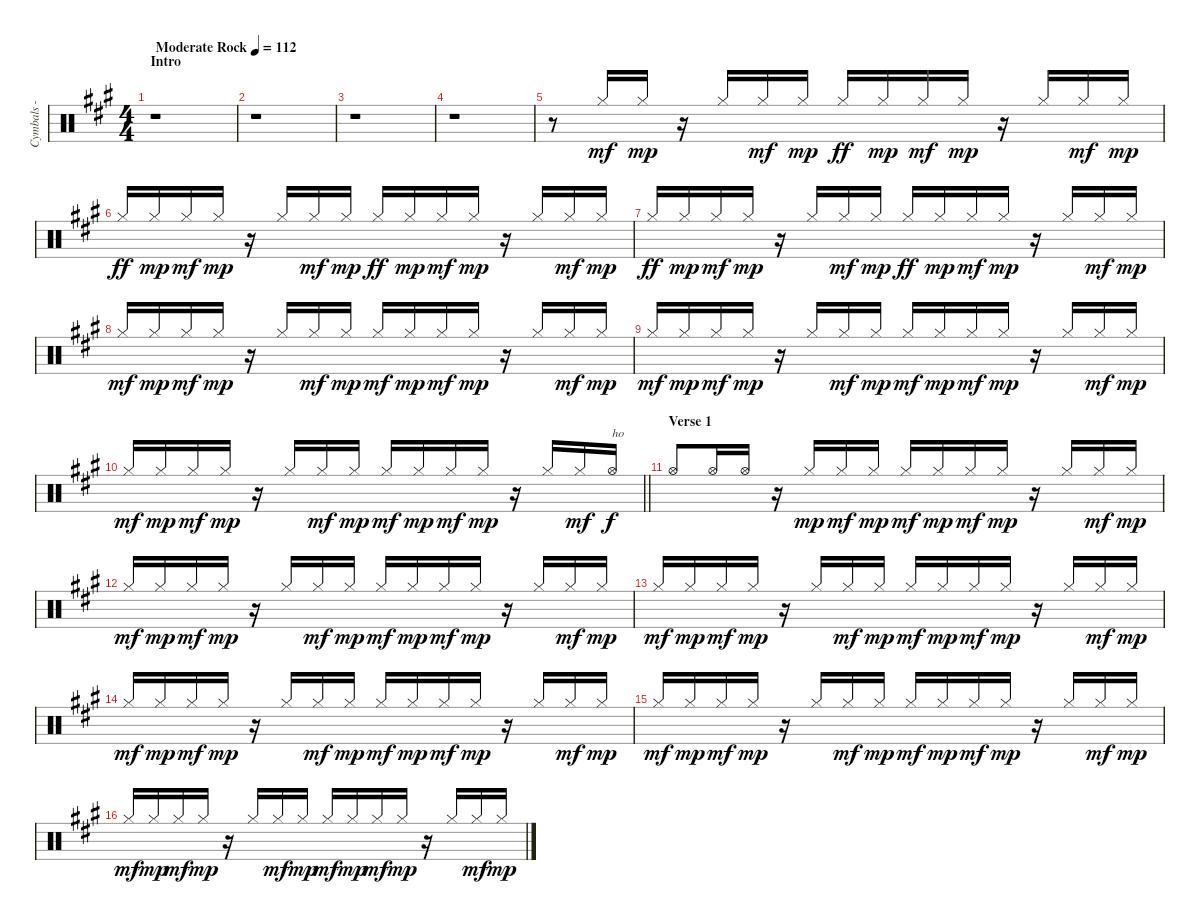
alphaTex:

\track ("Cymbals - hi-hat" "Cymbals - ") {instrument percussion}
\staff {score}
\articulation defaults
\ts (4 4)
\section ("" "Intro")
\tempo (112 "Moderate Rock")
\clef neutral
\ks f#minor
r.1{dy mf volume 6 balance 11} |
r.1 |
r.1 |
r.1 |
r.8 "Hi-Hat (closed)".16{beam Up} "Hi-Hat (closed)".16{dy mp beam Up} r.16 "Hi-Hat (closed)".16{beam Up} "Hi-Hat (closed)".16{dy mf beam Up} "Hi-Hat (closed)".16{dy mp beam Up} "Hi-Hat (closed)".16{dy ff beam Up} "Hi-Hat (closed)".16{dy mp beam Up} "Hi-Hat (closed)".16{dy mf beam Up} "Hi-Hat (closed)".16{dy mp beam Up} r.16 "Hi-Hat (closed)".16{beam Up} "Hi-Hat (closed)".16{dy mf beam Up} "Hi-Hat (closed)".16{dy mp beam Up} |
"Hi-Hat (closed)".16{dy ff beam Up} "Hi-Hat (closed)".16{dy mp beam Up} "Hi-Hat (closed)".16{dy mf beam Up} "Hi-Hat (closed)".16{dy mp beam Up} r.16 "Hi-Hat (closed)".16{beam Up} "Hi-Hat (closed)".16{dy mf beam Up} "Hi-Hat (closed)".16{dy mp beam Up} "Hi-Hat (closed)".16{dy ff beam Up} "Hi-Hat (closed)".16{dy mp beam Up} "Hi-Hat (closed)".16{dy mf beam Up} "Hi-Hat (closed)".16{dy mp beam Up} r.16 "Hi-Hat (closed)".16{beam Up} "Hi-Hat (closed)".16{dy mf beam Up} "Hi-Hat (closed)".16{dy mp beam Up} |
"Hi-Hat (closed)".16{dy ff beam Up} "Hi-Hat (closed)".16{dy mp beam Up} "Hi-Hat (closed)".16{dy mf beam Up} "Hi-Hat (closed)".16{dy mp beam Up} r.16 "Hi-Hat (closed)".16{beam Up} "Hi-Hat (closed)".16{dy mf beam Up} "Hi-Hat (closed)".16{dy mp beam Up} "Hi-Hat (closed)".16{dy ff beam Up} "Hi-Hat (closed)".16{dy mp beam Up} "Hi-Hat (closed)".16{dy mf beam Up} "Hi-Hat (closed)".16{dy mp beam Up} r.16 "Hi-Hat (closed)".16{beam Up} "Hi-Hat (closed)".16{dy mf beam Up} "Hi-Hat (closed)".16{dy mp beam Up} |
"Hi-Hat (closed)".16{dy mf beam Up} "Hi-Hat (closed)".16{dy mp beam Up} "Hi-Hat (closed)".16{dy mf beam Up} "Hi-Hat (closed)".16{dy mp beam Up} r.16 "Hi-Hat (closed)".16{beam Up} "Hi-Hat (closed)".16{dy mf beam Up} "Hi-Hat (closed)".16{dy mp beam Up} "Hi-Hat (closed)".16{dy mf beam Up} "Hi-Hat (closed)".16{dy mp beam Up} "Hi-Hat (closed)".16{dy mf beam Up} "Hi-Hat (closed)".16{dy mp beam Up} r.16 "Hi-Hat (closed)".16{beam Up} "Hi-Hat (closed)".16{dy mf beam Up} "Hi-Hat (closed)".16{dy mp beam Up} |
"Hi-Hat (closed)".16{dy mf beam Up} "Hi-Hat (closed)".16{dy mp beam Up} "Hi-Hat (closed)".16{dy mf beam Up} "Hi-Hat (closed)".16{dy mp beam Up} r.16 "Hi-Hat (closed)".16{beam Up} "Hi-Hat (closed)".16{dy mf beam Up} "Hi-Hat (closed)".16{dy mp beam Up} "Hi-Hat (closed)".16{dy mf beam Up} "Hi-Hat (closed)".16{dy mp beam Up} "Hi-Hat (closed)".16{dy mf beam Up} "Hi-Hat (closed)".16{dy mp beam Up} r.16 "Hi-Hat (closed)".16{beam Up} "Hi-Hat (closed)".16{dy mf beam Up} "Hi-Hat (closed)".16{dy mp beam Up} |
\barLineRight lightlight "Hi-Hat (closed)".16{dy mf beam Up} "Hi-Hat (closed)".16{dy mp beam Up} "Hi-Hat (closed)".16{dy mf beam Up} "Hi-Hat (closed)".16{dy mp beam Up}
r.16 "Hi-Hat (closed)".16{beam Up} "Hi-Hat (closed)".16{dy mf beam Up} "Hi-Hat (closed)".16{dy mp beam Up} "Hi-Hat (closed)".16{dy mf beam Up} "Hi-Hat (closed)".16{dy mp beam Up} "Hi-Hat (closed)".16{dy mf beam Up} "Hi-Hat (closed)".16{dy mp beam Up} r.16 "Hi-Hat (closed)".16{beam Up} "Hi-Hat (closed)".16{dy mf beam Up} "Hi-Hat (open)".16{txt "ho" dy f beam Up} |
\section ("" "Verse 1")
"Hi-Hat (open)".8{beam Up} "Hi-Hat (open)".16{beam Up} "Hi-Hat (open)".16{beam Up} r.16 "Hi-Hat (closed)".16{dy mp beam Up} "Hi-Hat (closed)".16{dy mf beam Up} "Hi-Hat (closed)".16{dy mp beam Up} "Hi-Hat (closed)".16{dy mf beam Up} "Hi-Hat (closed)".16{dy mp beam Up} "Hi-Hat (closed)".16{dy mf beam Up} "Hi-Hat (closed)".16{dy mp beam Up} r.16 "Hi-Hat (closed)".16{beam Up} "Hi-Hat (closed)".16{dy mf beam Up} "Hi-Hat (closed)".16{dy mp beam Up} |
"Hi-Hat (closed)".16{dy mf beam Up} "Hi-Hat (closed)".16{dy mp beam Up} "Hi-Hat (closed)".16{dy mf beam Up} "Hi-Hat (closed)".16{dy mp beam Up} r.16 "Hi-Hat (closed)".16{beam Up} "Hi-Hat (closed)".16{dy mf beam Up} "Hi-Hat (closed)".16{dy mp beam Up} "Hi-Hat (closed)".16{dy mf beam Up} "Hi-Hat (closed)".16{dy mp beam Up} "Hi-Hat (closed)".16{dy mf beam Up} "Hi-Hat (closed)".16{dy mp beam Up} r.16 "Hi-Hat (closed)".16{beam Up} "Hi-Hat (closed)".16{dy mf beam Up} "Hi-Hat (closed)".16{dy mp beam Up} |
"Hi-Hat (closed)".16{dy mf beam Up} "Hi-Hat (closed)".16{dy mp beam Up} "Hi-Hat (closed)".16{dy mf beam Up} "Hi-Hat (closed)".16{dy mp beam Up} r.16 "Hi-Hat (closed)".16{beam Up} "Hi-Hat (closed)".16{dy mf beam Up} "Hi-Hat (closed)".16{dy mp beam Up} "Hi-Hat (closed)".16{dy mf beam Up} "Hi-Hat (closed)".16{dy mp beam Up} "Hi-Hat (closed)".16{dy mf beam Up} "Hi-Hat (closed)".16{dy mp beam Up} r.16 "Hi-Hat (closed)".16{beam Up} "Hi-Hat (closed)".16{dy mf beam Up} "Hi-Hat (closed)".16{dy mp beam Up} |
"Hi-Hat (closed)".16{dy mf beam Up} "Hi-Hat (closed)".16{dy mp beam Up} "Hi-Hat (closed)".16{dy mf beam Up} "Hi-Hat (closed)".16{dy mp beam Up} r.16 "Hi-Hat (closed)".16{beam Up} "Hi-Hat (closed)".16{dy mf beam Up} "Hi-Hat (closed)".16{dy mp beam Up} "Hi-Hat (closed)".16{dy mf beam Up} "Hi-Hat (closed)".16{dy mp beam Up} "Hi-Hat (closed)".16{dy mf beam Up} "Hi-Hat (closed)".16{dy mp beam Up} r.16 "Hi-Hat (closed)".16{beam Up} "Hi-Hat (closed)".16{dy mf beam Up} "Hi-Hat (closed)".16{dy mp beam Up} |
"Hi-Hat (closed)".16{dy mf beam Up} "Hi-Hat (closed)".16{dy mp beam Up} "Hi-Hat (closed)".16{dy mf beam Up} "Hi-Hat (closed)".16{dy mp beam Up} r.16 "Hi-Hat (closed)".16{beam Up} "Hi-Hat (closed)".16{dy mf beam Up} "Hi-Hat (closed)".16{dy mp beam Up} "Hi-Hat (closed)".16{dy mf beam Up} "Hi-Hat (closed)".16{dy mp beam Up} "Hi-Hat (closed)".16{dy mf beam Up} "Hi-Hat (closed)".16{dy mp beam Up} r.16 "Hi-Hat (closed)".16{beam Up} "Hi-Hat (closed)".16{dy mf beam Up} "Hi-Hat (closed)".16{dy mp beam Up} |
"Hi-Hat (closed)".16{dy mf beam Up} "Hi-Hat (closed)".16{dy mp beam Up} "Hi-Hat (closed)".16{dy mf beam Up} "Hi-Hat (closed)".16{dy mp beam Up} r.16 "Hi-Hat (closed)".16{beam Up} "Hi-Hat (closed)".16{dy mf beam Up} "Hi-Hat (closed)".16{dy mp beam Up} "Hi-Hat (closed)".16{dy mf beam Up} "Hi-Hat (closed)".16{dy mp beam Up} "Hi-Hat (closed)".16{dy mf beam Up} "Hi-Hat (closed)".16{dy mp beam Up} r.16 "Hi-Hat (closed)".16{beam Up} "Hi-Hat (closed)".16{dy mf beam Up} "Hi-Hat (closed)".16{dy mp beam Up}
